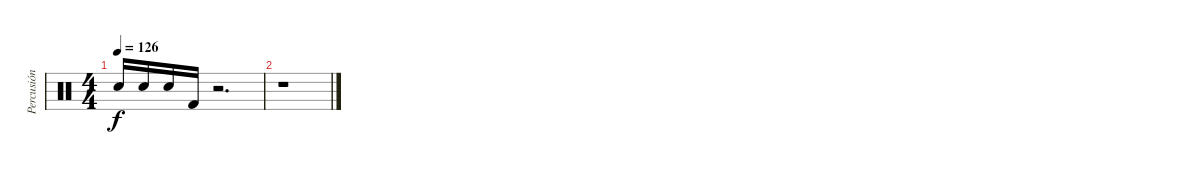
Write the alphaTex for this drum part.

\track ("Percusión" "Percusión") {instrument percussion}
\staff {score}
\articulation defaults
\ts (4 4)
\tempo 126
\clef neutral
\ks c "Snare (hit) 2".16{dy f} "Snare (hit) 2".16 "Snare (hit) 2".16 "Kick (hit) 2".16
r.2{d} |
r.1
